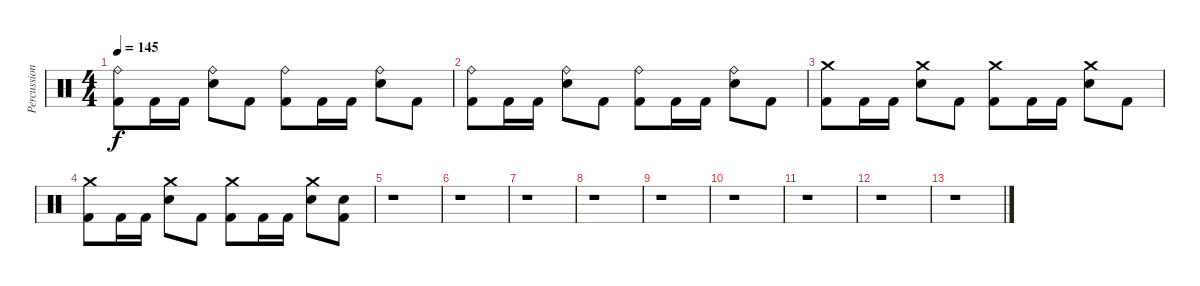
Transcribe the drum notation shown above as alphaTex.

\track ("Percussion" "Percussion") {instrument percussion}
\staff {score}
\articulation defaults
\ts (4 4)
\tempo 145
\clef neutral
\ks c
("Ride (bell)" "Kick (hit) 2").8{dy f} "Kick (hit) 2".16 "Kick (hit) 2".16 ("Ride (bell)" "Snare (hit) 2").8 "Kick (hit) 2".8 ("Ride (bell)" "Kick (hit) 2").8 "Kick (hit) 2".16 "Kick (hit) 2".16 ("Ride (bell)" "Snare (hit) 2").8 "Kick (hit) 2".8 |
("Ride (bell)" "Kick (hit) 2").8 "Kick (hit) 2".16 "Kick (hit) 2".16 ("Ride (bell)" "Snare (hit) 2").8 "Kick (hit) 2".8 ("Ride (bell)" "Kick (hit) 2").8 "Kick (hit) 2".16 "Kick (hit) 2".16 ("Ride (bell)" "Snare (hit) 2").8 "Kick (hit) 2".8 |
("Crash medium (hit)" "Kick (hit) 2").8 "Kick (hit) 2".16 "Kick (hit) 2".16 ("Crash medium (hit)" "Snare (hit) 2").8 "Kick (hit) 2".8 ("Crash medium (hit)" "Kick (hit) 2").8 "Kick (hit) 2".16 "Kick (hit) 2".16 ("Crash medium (hit)" "Snare (hit) 2").8 "Kick (hit) 2".8 |
("Crash medium (hit)" "Kick (hit) 2").8 "Kick (hit) 2".16 "Kick (hit) 2".16 ("Crash medium (hit)" "Snare (hit) 2").8 "Kick (hit) 2".8 ("Crash medium (hit)" "Kick (hit) 2").8 "Kick (hit) 2".16 "Kick (hit) 2".16 ("Crash medium (hit)" "Snare (hit) 2").8 ("Snare (hit) 2" "Kick (hit) 2").8 |
r.1 |
r.1 |
r.1 |
r.1 |
r.1 |
r.1 |
r.1 |
r.1 |
r.1
